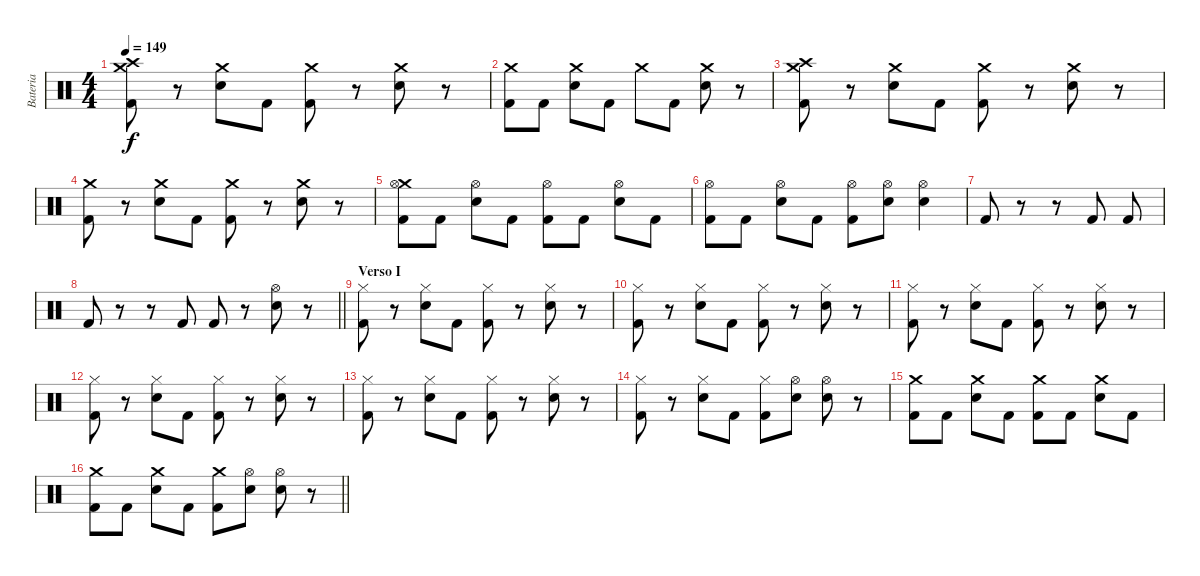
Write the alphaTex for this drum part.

\track ("Bateria" "Bateria") {instrument percussion}
\staff {score}
\articulation defaults
\ts (4 4)
\tempo 149
\clef neutral
\ks c
("Crash high (hit)" "Crash medium (hit)" "Kick (hit) 2").8{dy f} r.8 ("Crash medium (hit)" "Electric Snare (hit)").8 "Kick (hit) 2".8 ("Crash medium (hit)" "Kick (hit) 2").8 r.8 ("Crash medium (hit)" "Electric Snare (hit)").8 r.8 |
("Crash medium (hit)" "Kick (hit) 2").8 "Kick (hit) 2".8 ("Crash medium (hit)" "Electric Snare (hit)").8 "Kick (hit) 2".8 "Crash medium (hit)".8 "Kick (hit) 2".8 ("Crash medium (hit)" "Electric Snare (hit)").8 r.8 |
("Crash high (hit)" "Crash medium (hit)" "Kick (hit) 2").8 r.8 ("Crash medium (hit)" "Electric Snare (hit)").8 "Kick (hit) 2".8 ("Crash medium (hit)" "Kick (hit) 2").8 r.8 ("Crash medium (hit)" "Electric Snare (hit)").8 r.8 |
("Crash medium (hit)" "Kick (hit) 2").8 r.8 ("Crash medium (hit)" "Electric Snare (hit)").8 "Kick (hit) 2".8 ("Crash medium (hit)" "Kick (hit) 2").8 r.8 ("Crash medium (hit)" "Electric Snare (hit)").8 r.8 |
("Crash medium (hit)" "Hi-Hat (open)" "Kick (hit) 2").8 "Kick (hit) 2".8 ("Hi-Hat (open)" "Electric Snare (hit)").8 "Kick (hit) 2".8 ("Hi-Hat (open)" "Kick (hit) 2").8 "Kick (hit) 2".8 ("Hi-Hat (open)" "Electric Snare (hit)").8 "Kick (hit) 2".8 |
("Hi-Hat (open)" "Kick (hit) 2").8 "Kick (hit) 2".8 ("Hi-Hat (open)" "Electric Snare (hit)").8 "Kick (hit) 2".8 ("Hi-Hat (open)" "Kick (hit) 2").8 ("Hi-Hat (open)" "Electric Snare (hit)").8 ("Hi-Hat (open)" "Electric Snare (hit)").4 |
"Kick (hit) 2".8 r.8 r.8 "Kick (hit) 2".8 "Kick (hit) 2".8 |
\barLineRight lightlight "Kick (hit) 2".8
r.8 r.8 "Kick (hit) 2".8 "Kick (hit) 2".8 r.8 ("Hi-Hat (open)" "Electric Snare (hit)").8 r.8 |
\section ("" "Verso I")
("Hi-Hat (closed)" "Kick (hit) 2").8 r.8 ("Hi-Hat (closed)" "Electric Snare (hit)").8 "Kick (hit) 2".8 ("Hi-Hat (closed)" "Kick (hit) 2").8 r.8 ("Hi-Hat (closed)" "Electric Snare (hit)").8 r.8 |
("Hi-Hat (closed)" "Kick (hit) 2").8 r.8 ("Hi-Hat (closed)" "Electric Snare (hit)").8 "Kick (hit) 2".8 ("Hi-Hat (closed)" "Kick (hit) 2").8 r.8 ("Hi-Hat (closed)" "Electric Snare (hit)").8 r.8 |
("Hi-Hat (closed)" "Kick (hit) 2").8 r.8 ("Hi-Hat (closed)" "Electric Snare (hit)").8 "Kick (hit) 2".8 ("Hi-Hat (closed)" "Kick (hit) 2").8 r.8 ("Hi-Hat (closed)" "Electric Snare (hit)").8 r.8 |
("Hi-Hat (closed)" "Kick (hit) 2").8 r.8 ("Hi-Hat (closed)" "Electric Snare (hit)").8 "Kick (hit) 2".8 ("Hi-Hat (closed)" "Kick (hit) 2").8 r.8 ("Hi-Hat (closed)" "Electric Snare (hit)").8 r.8 |
("Hi-Hat (closed)" "Kick (hit) 2").8 r.8 ("Hi-Hat (closed)" "Electric Snare (hit)").8 "Kick (hit) 2".8 ("Hi-Hat (closed)" "Kick (hit) 2").8 r.8 ("Hi-Hat (closed)" "Electric Snare (hit)").8 r.8 |
("Hi-Hat (closed)" "Kick (hit) 2").8 r.8 ("Hi-Hat (closed)" "Electric Snare (hit)").8 "Kick (hit) 2".8 ("Hi-Hat (closed)" "Kick (hit) 2").8 ("Hi-Hat (open)" "Electric Snare (hit)").8 ("Hi-Hat (open)" "Electric Snare (hit)").8 r.8 |
("Crash medium (hit)" "Kick (hit) 2").8 "Kick (hit) 2".8 ("Crash medium (hit)" "Electric Snare (hit)").8 "Kick (hit) 2".8 ("Crash medium (hit)" "Kick (hit) 2").8 "Kick (hit) 2".8 ("Crash medium (hit)" "Electric Snare (hit)").8 "Kick (hit) 2".8 |
\barLineRight lightlight
("Crash medium (hit)" "Kick (hit) 2").8 "Kick (hit) 2".8 ("Crash medium (hit)" "Electric Snare (hit)").8 "Kick (hit) 2".8 ("Crash medium (hit)" "Kick (hit) 2").8 ("Hi-Hat (open)" "Electric Snare (hit)").8 ("Hi-Hat (open)" "Electric Snare (hit)").8 r.8
